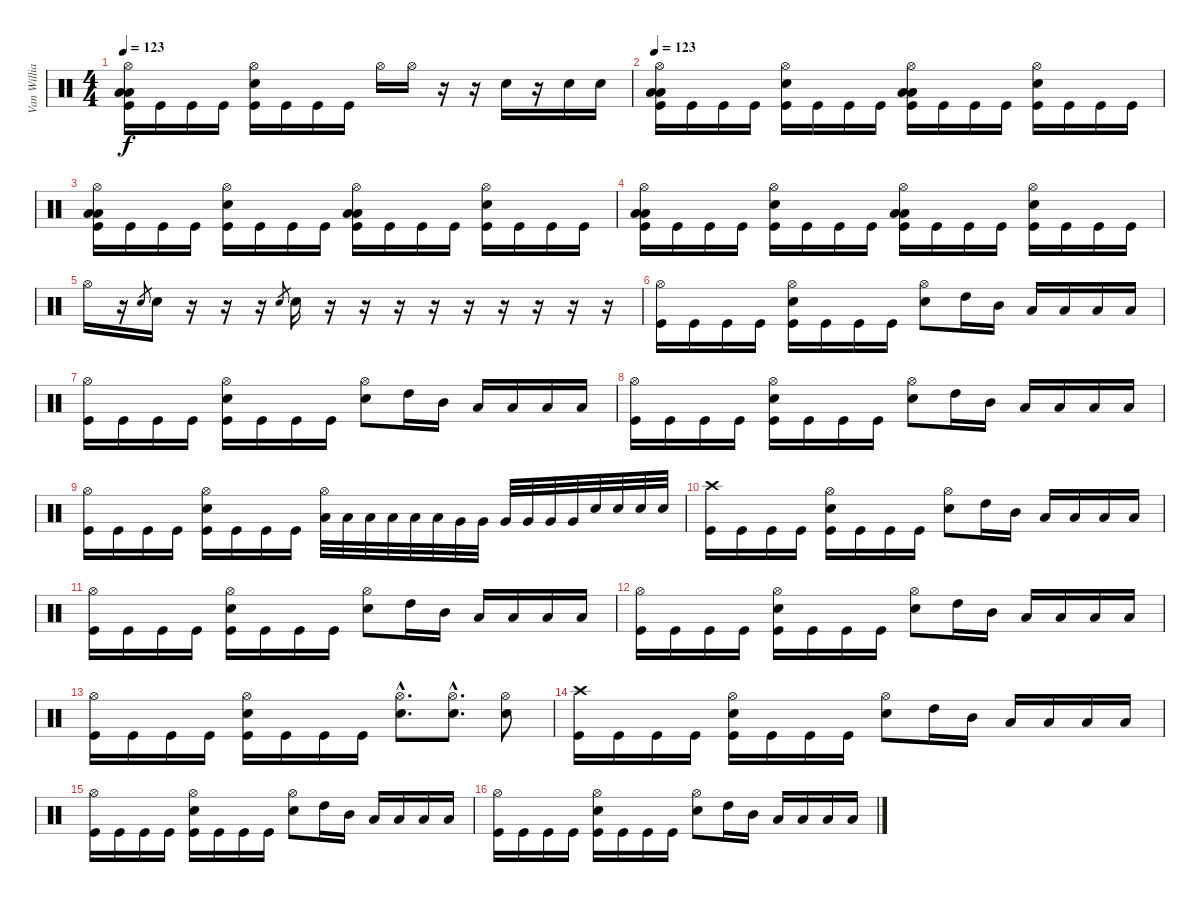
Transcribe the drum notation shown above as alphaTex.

\track ("Van Williams" "Van Willia") {instrument percussion}
\staff {score}
\articulation defaults
\ts (4 4)
\tempo 123
\clef neutral
\ks c
("Hi-Hat (open)" "Low Floor Tom (hit)" "Low Floor Tom (hit)" "Kick (hit)").16{dy f} "Kick (hit)".16 "Kick (hit)".16 "Kick (hit)".16 ("Hi-Hat (open)" "Electric Snare (hit)" "Kick (hit)").16 "Kick (hit)".16 "Kick (hit)".16 "Kick (hit)".16 "Hi-Hat (open)".16 "Hi-Hat (open)".16 r.16 r.16 "Electric Snare (hit)".16 r.16 "Electric Snare (hit)".16 "Electric Snare (hit)".16 |
\tempo 123
("Hi-Hat (open)" "Low Floor Tom (hit)" "Low Floor Tom (hit)" "Kick (hit)").16 "Kick (hit)".16 "Kick (hit)".16 "Kick (hit)".16 ("Hi-Hat (open)" "Electric Snare (hit)" "Kick (hit)").16 "Kick (hit)".16 "Kick (hit)".16 "Kick (hit)".16 ("Hi-Hat (open)" "Low Floor Tom (hit)" "Low Floor Tom (hit)" "Kick (hit)").16 "Kick (hit)".16 "Kick (hit)".16 "Kick (hit)".16 ("Hi-Hat (open)" "Electric Snare (hit)" "Kick (hit)").16 "Kick (hit)".16 "Kick (hit)".16 "Kick (hit)".16 |
("Hi-Hat (open)" "Low Floor Tom (hit)" "Low Floor Tom (hit)" "Kick (hit)").16 "Kick (hit)".16 "Kick (hit)".16 "Kick (hit)".16 ("Hi-Hat (open)" "Electric Snare (hit)" "Kick (hit)").16 "Kick (hit)".16 "Kick (hit)".16 "Kick (hit)".16 ("Hi-Hat (open)" "Low Floor Tom (hit)" "Low Floor Tom (hit)" "Kick (hit)").16 "Kick (hit)".16 "Kick (hit)".16 "Kick (hit)".16 ("Hi-Hat (open)" "Electric Snare (hit)" "Kick (hit)").16 "Kick (hit)".16 "Kick (hit)".16 "Kick (hit)".16 |
("Hi-Hat (open)" "Low Floor Tom (hit)" "Low Floor Tom (hit)" "Kick (hit)").16 "Kick (hit)".16 "Kick (hit)".16 "Kick (hit)".16 ("Hi-Hat (open)" "Electric Snare (hit)" "Kick (hit)").16 "Kick (hit)".16 "Kick (hit)".16 "Kick (hit)".16 ("Hi-Hat (open)" "Low Floor Tom (hit)" "Low Floor Tom (hit)" "Kick (hit)").16 "Kick (hit)".16 "Kick (hit)".16 "Kick (hit)".16 ("Hi-Hat (open)" "Electric Snare (hit)" "Kick (hit)").16 "Kick (hit)".16 "Kick (hit)".16 "Kick (hit)".16 |
"Hi-Hat (open)".16 r.16 "Electric Snare (hit)".8{gr} "Electric Snare (hit)".16 r.16 r.16 r.16 "Electric Snare (hit)".8{gr} "Electric Snare (hit)".16 r.16 r.16 r.16 r.16 r.16 r.16 r.16 r.16 r.16 |
("Hi-Hat (open)" "Kick (hit)").16 "Kick (hit)".16 "Kick (hit)".16 "Kick (hit)".16 ("Hi-Hat (open)" "Electric Snare (hit)" "Kick (hit)").16 "Kick (hit)".16 "Kick (hit)".16 "Kick (hit)".16 ("Hi-Hat (open)" "Electric Snare (hit)").8 "High Tom (hit)".16 "Mid Tom (hit)".16 "Low Tom (hit)".16 "Low Tom (hit)".16 "Low Tom (hit)".16 "Low Tom (hit)".16 |
("Hi-Hat (open)" "Kick (hit)").16 "Kick (hit)".16 "Kick (hit)".16 "Kick (hit)".16 ("Hi-Hat (open)" "Electric Snare (hit)" "Kick (hit)").16 "Kick (hit)".16 "Kick (hit)".16 "Kick (hit)".16 ("Hi-Hat (open)" "Electric Snare (hit)").8 "High Tom (hit)".16 "Mid Tom (hit)".16 "Low Tom (hit)".16 "Low Tom (hit)".16 "Low Tom (hit)".16 "Low Tom (hit)".16 |
("Hi-Hat (open)" "Kick (hit)").16 "Kick (hit)".16 "Kick (hit)".16 "Kick (hit)".16 ("Hi-Hat (open)" "Electric Snare (hit)" "Kick (hit)").16 "Kick (hit)".16 "Kick (hit)".16 "Kick (hit)".16 ("Hi-Hat (open)" "Electric Snare (hit)").8 "High Tom (hit)".16 "Mid Tom (hit)".16 "Low Tom (hit)".16 "Low Tom (hit)".16 "Low Tom (hit)".16 "Low Tom (hit)".16 |
("Hi-Hat (open)" "Kick (hit)").16 "Kick (hit)".16 "Kick (hit)".16 "Kick (hit)".16 ("Hi-Hat (open)" "Electric Snare (hit)" "Kick (hit)").16 "Kick (hit)".16 "Kick (hit)".16 "Kick (hit)".16 ("Hi-Hat (open)" "Low Tom (hit)").32 "Low Tom (hit)".32 "Low Tom (hit)".32 "Low Tom (hit)".32 "Low Tom (hit)".32 "Low Tom (hit)".32 "Very Low Tom (hit)".32 "Very Low Tom (hit)".32 "Very Low Tom (hit)".32 "Very Low Tom (hit)".32 "Very Low Tom (hit)".32 "Very Low Tom (hit)".32 "Electric Snare (hit)".32 "Electric Snare (hit)".32 "Electric Snare (hit)".32 "Electric Snare (hit)".32 |
("Crash high (hit)" "Kick (hit)").16 "Kick (hit)".16 "Kick (hit)".16 "Kick (hit)".16 ("Hi-Hat (open)" "Electric Snare (hit)" "Kick (hit)").16 "Kick (hit)".16 "Kick (hit)".16 "Kick (hit)".16 ("Hi-Hat (open)" "Electric Snare (hit)").8 "High Tom (hit)".16 "Mid Tom (hit)".16 "Low Tom (hit)".16 "Low Tom (hit)".16 "Low Tom (hit)".16 "Low Tom (hit)".16 |
("Hi-Hat (open)" "Kick (hit)").16 "Kick (hit)".16 "Kick (hit)".16 "Kick (hit)".16 ("Hi-Hat (open)" "Electric Snare (hit)" "Kick (hit)").16 "Kick (hit)".16 "Kick (hit)".16 "Kick (hit)".16 ("Hi-Hat (open)" "Electric Snare (hit)").8 "High Tom (hit)".16 "Mid Tom (hit)".16 "Low Tom (hit)".16 "Low Tom (hit)".16 "Low Tom (hit)".16 "Low Tom (hit)".16 |
("Hi-Hat (open)" "Kick (hit)").16 "Kick (hit)".16 "Kick (hit)".16 "Kick (hit)".16 ("Hi-Hat (open)" "Electric Snare (hit)" "Kick (hit)").16 "Kick (hit)".16 "Kick (hit)".16 "Kick (hit)".16 ("Hi-Hat (open)" "Electric Snare (hit)").8 "High Tom (hit)".16 "Mid Tom (hit)".16 "Low Tom (hit)".16 "Low Tom (hit)".16 "Low Tom (hit)".16 "Low Tom (hit)".16 |
("Hi-Hat (open)" "Kick (hit)").16 "Kick (hit)".16 "Kick (hit)".16 "Kick (hit)".16 ("Hi-Hat (open)" "Electric Snare (hit)" "Kick (hit)").16 "Kick (hit)".16 "Kick (hit)".16 "Kick (hit)".16 ("Hi-Hat (open)"{hac} "Electric Snare (hit)"{hac}).8{d} ("Hi-Hat (open)"{hac} "Electric Snare (hit)"{hac}).8{d} ("Hi-Hat (open)" "Electric Snare (hit)").8 |
("Crash high (hit)" "Kick (hit)").16 "Kick (hit)".16 "Kick (hit)".16 "Kick (hit)".16 ("Hi-Hat (open)" "Electric Snare (hit)" "Kick (hit)").16 "Kick (hit)".16 "Kick (hit)".16 "Kick (hit)".16 ("Hi-Hat (open)" "Electric Snare (hit)").8 "High Tom (hit)".16 "Mid Tom (hit)".16 "Low Tom (hit)".16 "Low Tom (hit)".16 "Low Tom (hit)".16 "Low Tom (hit)".16 |
("Hi-Hat (open)" "Kick (hit)").16 "Kick (hit)".16 "Kick (hit)".16 "Kick (hit)".16 ("Hi-Hat (open)" "Electric Snare (hit)" "Kick (hit)").16 "Kick (hit)".16 "Kick (hit)".16 "Kick (hit)".16 ("Hi-Hat (open)" "Electric Snare (hit)").8 "High Tom (hit)".16 "Mid Tom (hit)".16 "Low Tom (hit)".16 "Low Tom (hit)".16 "Low Tom (hit)".16 "Low Tom (hit)".16 |
("Hi-Hat (open)" "Kick (hit)").16 "Kick (hit)".16 "Kick (hit)".16 "Kick (hit)".16 ("Hi-Hat (open)" "Electric Snare (hit)" "Kick (hit)").16 "Kick (hit)".16 "Kick (hit)".16 "Kick (hit)".16 ("Hi-Hat (open)" "Electric Snare (hit)").8 "High Tom (hit)".16 "Mid Tom (hit)".16 "Low Tom (hit)".16 "Low Tom (hit)".16 "Low Tom (hit)".16 "Low Tom (hit)".16
